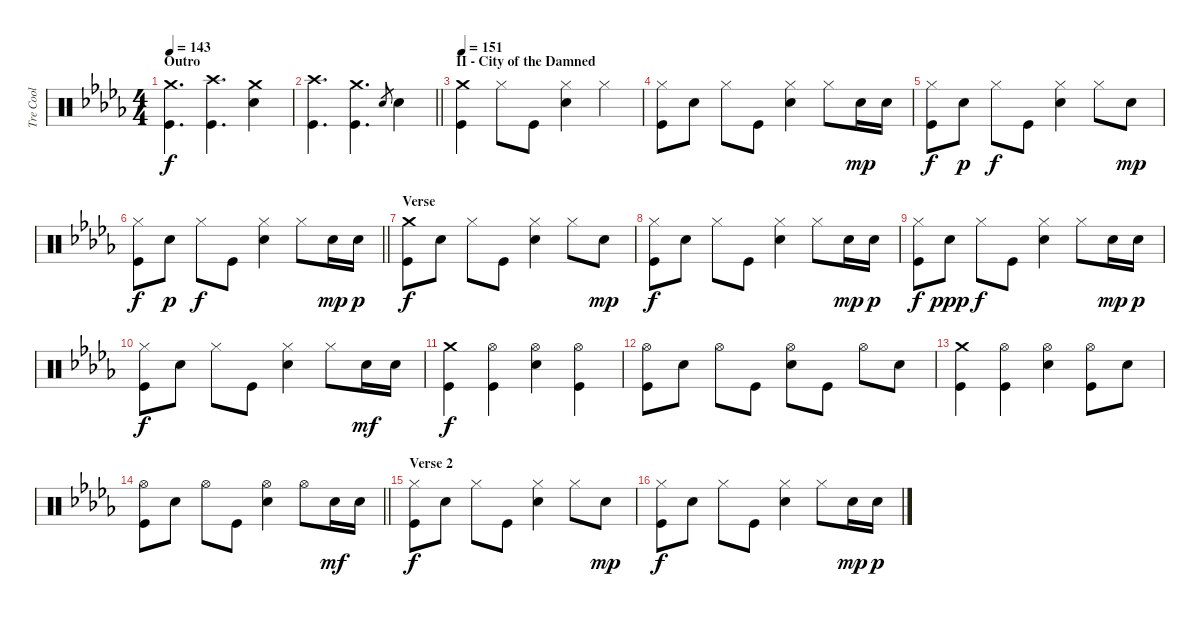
\track ("Tre Cool" "Tre Cool") {instrument percussion}
\staff {score}
\articulation defaults
\ts (4 4)
\section ("" "Outro")
\tempo 143
\clef neutral
\ks db
("Crash medium (hit)" "Kick (hit)").4{d dy f} ("Crash high (hit)" "Kick (hit)").4{d} ("Crash medium (hit)" "Electric Snare (hit)").4 |
\barLineRight lightlight
("Crash high (hit)" "Kick (hit)").4{d} ("Crash medium (hit)" "Kick (hit)").4{d} "Electric Snare (hit)".8{gr} "Electric Snare (hit)".4 |
\section ("" "II - City of the Damned")
\tempo 151
("Crash medium (hit)" "Kick (hit)").4 "Hi-Hat (closed)".8 "Kick (hit)".8 ("Hi-Hat (closed)" "Electric Snare (hit)").4 "Hi-Hat (closed)".4 |
("Hi-Hat (closed)" "Kick (hit)").8 "Electric Snare (hit)".8 "Hi-Hat (closed)".8 "Kick (hit)".8 ("Hi-Hat (closed)" "Electric Snare (hit)").4 "Hi-Hat (closed)".8 "Electric Snare (hit)".16{dy mp} "Electric Snare (hit)".16 |
("Hi-Hat (closed)" "Kick (hit)").8{dy f} "Electric Snare (hit)".8{dy p} "Hi-Hat (closed)".8{dy f} "Kick (hit)".8 ("Hi-Hat (closed)" "Electric Snare (hit)").4 "Hi-Hat (closed)".8 "Electric Snare (hit)".8{dy mp} |
\barLineRight lightlight
("Hi-Hat (closed)" "Kick (hit)").8{dy f} "Electric Snare (hit)".8{dy p} "Hi-Hat (closed)".8{dy f} "Kick (hit)".8 ("Hi-Hat (closed)" "Electric Snare (hit)").4 "Hi-Hat (closed)".8 "Electric Snare (hit)".16{dy mp} "Electric Snare (hit)".16{dy p} |
\section ("" "Verse")
("Crash medium (hit)" "Kick (hit)").8{dy f} "Electric Snare (hit)".8 "Hi-Hat (closed)".8 "Kick (hit)".8 ("Hi-Hat (closed)" "Electric Snare (hit)").4 "Hi-Hat (closed)".8 "Electric Snare (hit)".8{dy mp} |
("Hi-Hat (closed)" "Kick (hit)").8{dy f} "Electric Snare (hit)".8 "Hi-Hat (closed)".8 "Kick (hit)".8 ("Hi-Hat (closed)" "Electric Snare (hit)").4 "Hi-Hat (closed)".8 "Electric Snare (hit)".16{dy mp} "Electric Snare (hit)".16{dy p} |
("Hi-Hat (closed)" "Kick (hit)").8{dy f} "Electric Snare (hit)".8{dy ppp} "Hi-Hat (closed)".8{dy f} "Kick (hit)".8 ("Hi-Hat (closed)" "Electric Snare (hit)").4 "Hi-Hat (closed)".8 "Electric Snare (hit)".16{dy mp} "Electric Snare (hit)".16{dy p} |
("Hi-Hat (closed)" "Kick (hit)").8{dy f} "Electric Snare (hit)".8 "Hi-Hat (closed)".8 "Kick (hit)".8 ("Hi-Hat (closed)" "Electric Snare (hit)").4 "Hi-Hat (closed)".8 "Electric Snare (hit)".16{dy mf} "Electric Snare (hit)".16 |
("Crash medium (hit)" "Kick (hit)").4{dy f} ("Hi-Hat (open)" "Kick (hit)").4 ("Hi-Hat (open)" "Electric Snare (hit)").4 ("Hi-Hat (open)" "Kick (hit)").4 |
("Hi-Hat (open)" "Kick (hit)").8 "Electric Snare (hit)".8 "Hi-Hat (open)".8 "Kick (hit)".8 ("Hi-Hat (open)" "Electric Snare (hit)").8 "Kick (hit)".8 "Hi-Hat (open)".8 "Electric Snare (hit)".8 |
("Crash medium (hit)" "Kick (hit)").4 ("Hi-Hat (open)" "Kick (hit)").4 ("Hi-Hat (open)" "Electric Snare (hit)").4 ("Hi-Hat (open)" "Kick (hit)").8 "Electric Snare (hit)".8 |
\barLineRight lightlight
("Hi-Hat (open)" "Kick (hit)").8 "Electric Snare (hit)".8 "Hi-Hat (open)".8 "Kick (hit)".8 ("Hi-Hat (open)" "Electric Snare (hit)").4 "Hi-Hat (open)".8 "Electric Snare (hit)".16{dy mf} "Electric Snare (hit)".16 |
\section ("" "Verse 2")
("Hi-Hat (closed)" "Kick (hit)").8{dy f} "Electric Snare (hit)".8 "Hi-Hat (closed)".8 "Kick (hit)".8 ("Hi-Hat (closed)" "Electric Snare (hit)").4 "Hi-Hat (closed)".8 "Electric Snare (hit)".8{dy mp} |
("Hi-Hat (closed)" "Kick (hit)").8{dy f} "Electric Snare (hit)".8 "Hi-Hat (closed)".8 "Kick (hit)".8 ("Hi-Hat (closed)" "Electric Snare (hit)").4 "Hi-Hat (closed)".8 "Electric Snare (hit)".16{dy mp} "Electric Snare (hit)".16{dy p}
